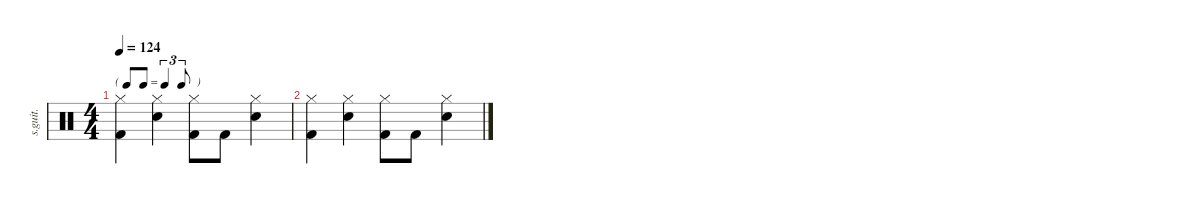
\defaultSystemsLayout 4
\hideDynamics
\bracketExtendMode nobrackets
\track ("Nick Mason | Ludwig Drumkit | Drums" "s.guit.") {instrument percussion}
\staff {score}
\articulation defaults
\ts (4 4)
\tf triplet8th
\tempo 124
\clef neutral
\ks c
("Hi-Hat (closed)" "Kick (hit) 2").4{dy f} ("Hi-Hat (closed)" "Snare (hit) 2").4{dy mf} ("Hi-Hat (closed)" "Kick (hit) 2").8 "Kick (hit) 2".8 ("Hi-Hat (closed)" "Snare (hit) 2").4 |
("Hi-Hat (closed)" "Kick (hit) 2").4{dy f} ("Hi-Hat (closed)" "Snare (hit) 2").4{dy mf} ("Hi-Hat (closed)" "Kick (hit) 2").8 "Kick (hit) 2".8 ("Hi-Hat (closed)" "Snare (hit) 2").4
